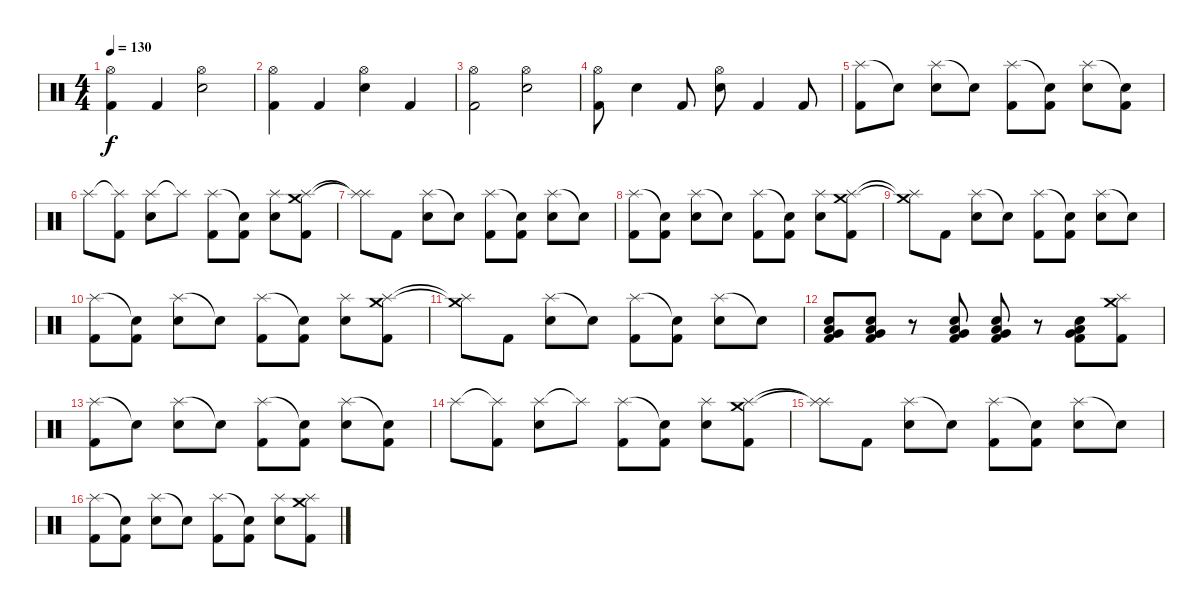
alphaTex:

\track (" " " ") {solo instrument percussion}
\staff {score}
\articulation defaults
\ts (4 4)
\tempo 130
\clef neutral
\ks c
("Hi-Hat (open)" "Kick (hit) 2").4{dy f} "Kick (hit) 2".4 ("Hi-Hat (open)" "Electric Snare (hit)").2 |
("Hi-Hat (open)" "Kick (hit) 2").4 "Kick (hit) 2".4 ("Hi-Hat (open)" "Electric Snare (hit)").4 "Kick (hit) 2".4 |
("Hi-Hat (open)" "Kick (hit) 2").2 ("Hi-Hat (open)" "Electric Snare (hit)").2 |
("Hi-Hat (open)" "Kick (hit) 2").8 "Electric Snare (hit)".4 "Kick (hit) 2".8 ("Hi-Hat (open)" "Electric Snare (hit)").8 "Kick (hit) 2".4 "Kick (hit) 2".8 |
("Splash (hit)" "Kick (hit) 2").8 "Snare (hit)"{t}.8 ("Splash (hit)" "Electric Snare (hit)").8 "Snare (hit)"{t}.8 ("Splash (hit)" "Kick (hit) 2").8 ("Snare (hit)"{t} "Kick (hit) 2").8 ("Splash (hit)" "Electric Snare (hit)").8 ("Snare (hit)"{t} "Kick (hit) 2").8 |
"Splash (hit)".8 ("Splash (hit)"{t} "Kick (hit) 2").8 ("Splash (hit)" "Electric Snare (hit)").8 "Splash (hit)"{t}.8 ("Splash (hit)" "Kick (hit) 2").8 ("Snare (hit)"{t} "Kick (hit) 2").8 ("Splash (hit)" "Electric Snare (hit)").8 ("Crash medium (hit)" "Splash (hit)" "Kick (hit) 2").8 |
("Splash (hit)"{t} "Splash (hit)"{t}).8 "Kick (hit) 2".8 ("Splash (hit)" "Electric Snare (hit)").8 "Snare (hit)"{t}.8 ("Splash (hit)" "Kick (hit) 2").8 ("Snare (hit)"{t} "Kick (hit) 2").8 ("Splash (hit)" "Electric Snare (hit)").8 "Snare (hit)"{t}.8 |
("Splash (hit)" "Kick (hit) 2").8 ("Snare (hit)"{t} "Kick (hit) 2").8 ("Splash (hit)" "Electric Snare (hit)").8 "Snare (hit)"{t}.8 ("Splash (hit)" "Kick (hit) 2").8 ("Snare (hit)"{t} "Kick (hit) 2").8 ("Splash (hit)" "Electric Snare (hit)").8 ("Crash medium (hit)" "Splash (hit)" "Kick (hit) 2").8 |
("Crash medium (hit)"{t} "Splash (hit)"{t}).8 "Kick (hit) 2".8 ("Splash (hit)" "Electric Snare (hit)").8 "Snare (hit)"{t}.8 ("Splash (hit)" "Kick (hit) 2").8 ("Snare (hit)"{t} "Kick (hit) 2").8 ("Splash (hit)" "Electric Snare (hit)").8 "Snare (hit)"{t}.8 |
("Splash (hit)" "Kick (hit) 2").8 ("Snare (hit)"{t} "Kick (hit) 2").8 ("Splash (hit)" "Electric Snare (hit)").8 "Snare (hit)"{t}.8 ("Splash (hit)" "Kick (hit) 2").8 ("Snare (hit)"{t} "Kick (hit) 2").8 ("Splash (hit)" "Electric Snare (hit)").8 ("Crash medium (hit)" "Splash (hit)" "Kick (hit) 2").8 |
("Crash medium (hit)"{t} "Splash (hit)"{t}).8 "Kick (hit) 2".8 ("Splash (hit)" "Electric Snare (hit)").8 "Snare (hit)"{t}.8 ("Splash (hit)" "Kick (hit) 2").8 ("Snare (hit)"{t} "Kick (hit) 2").8 ("Splash (hit)" "Electric Snare (hit)").8 "Snare (hit)"{t}.8 |
("Electric Snare (hit)" "Low Floor Tom (hit)" "Very Low Tom (hit)" "Kick (hit) 2").8 ("Electric Snare (hit)" "Low Floor Tom (hit)" "Very Low Tom (hit)" "Kick (hit) 2").8 r.8 ("Electric Snare (hit)" "Low Floor Tom (hit)" "Very Low Tom (hit)" "Kick (hit) 2").8 ("Electric Snare (hit)" "Low Floor Tom (hit)" "Very Low Tom (hit)" "Kick (hit) 2").8 r.8 ("Electric Snare (hit)" "Low Floor Tom (hit)" "Very Low Tom (hit)" "Kick (hit) 2").8 ("Splash (hit)" "Crash medium (hit)" "Kick (hit) 2").8 |
("Splash (hit)" "Kick (hit) 2").8 "Snare (hit)"{t}.8 ("Splash (hit)" "Electric Snare (hit)").8 "Snare (hit)"{t}.8 ("Splash (hit)" "Kick (hit) 2").8 ("Snare (hit)"{t} "Kick (hit) 2").8 ("Splash (hit)" "Electric Snare (hit)").8 ("Snare (hit)"{t} "Kick (hit) 2").8 |
"Splash (hit)".8 ("Splash (hit)"{t} "Kick (hit) 2").8 ("Splash (hit)" "Electric Snare (hit)").8 "Splash (hit)"{t}.8 ("Splash (hit)" "Kick (hit) 2").8 ("Snare (hit)"{t} "Kick (hit) 2").8 ("Splash (hit)" "Electric Snare (hit)").8 ("Crash medium (hit)" "Splash (hit)" "Kick (hit) 2").8 |
("Splash (hit)"{t} "Splash (hit)"{t}).8 "Kick (hit) 2".8 ("Splash (hit)" "Electric Snare (hit)").8 "Snare (hit)"{t}.8 ("Splash (hit)" "Kick (hit) 2").8 ("Snare (hit)"{t} "Kick (hit) 2").8 ("Splash (hit)" "Electric Snare (hit)").8 "Snare (hit)"{t}.8 |
("Splash (hit)" "Kick (hit) 2").8 ("Snare (hit)"{t} "Kick (hit) 2").8 ("Splash (hit)" "Electric Snare (hit)").8 "Snare (hit)"{t}.8 ("Splash (hit)" "Kick (hit) 2").8 ("Snare (hit)"{t} "Kick (hit) 2").8 ("Splash (hit)" "Electric Snare (hit)").8 ("Crash medium (hit)" "Splash (hit)" "Kick (hit) 2").8
